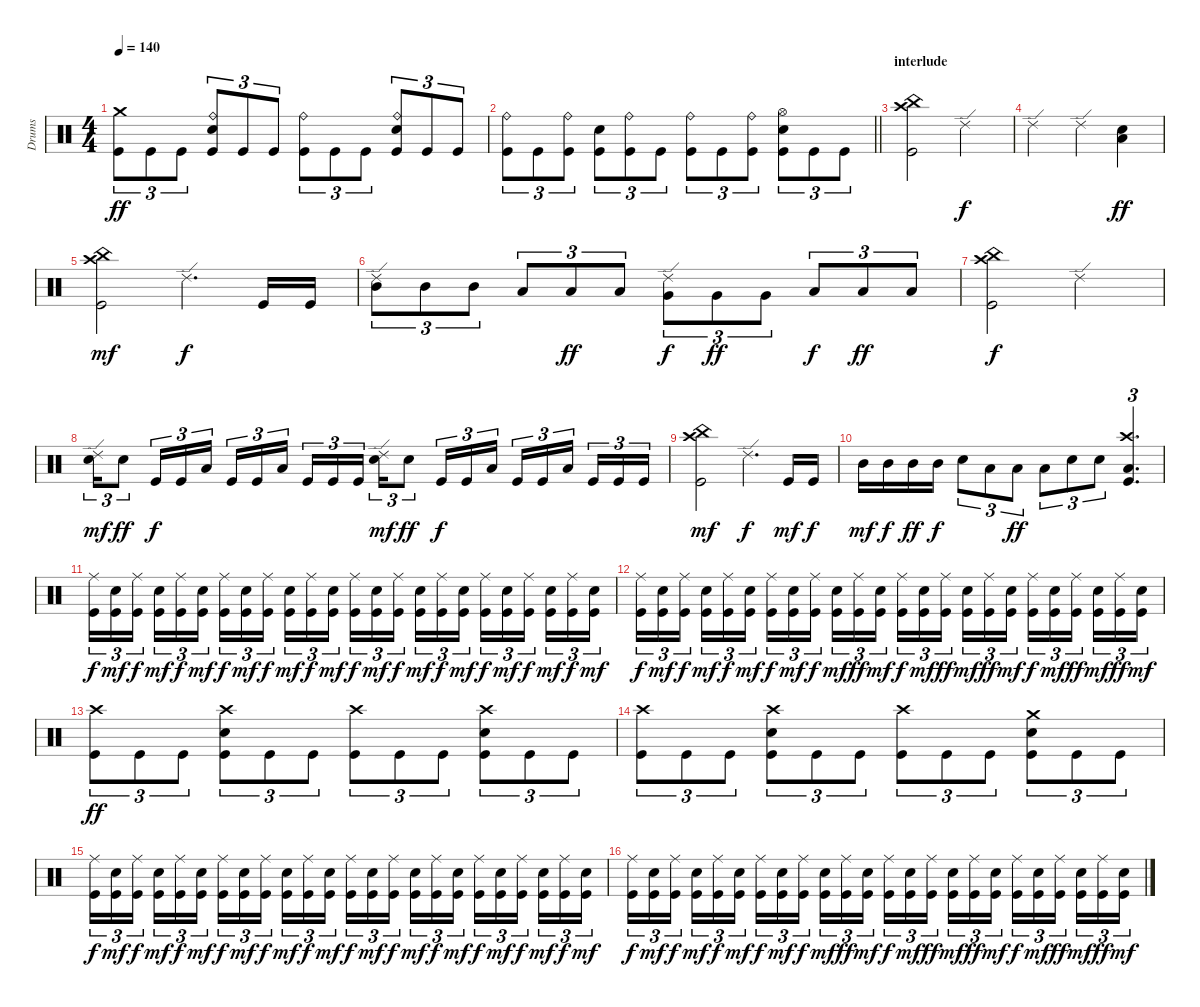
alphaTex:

\track ("Drums" "Drums") {instrument percussion}
\staff {score}
\articulation defaults
\ts (4 4)
\tempo 140
\clef neutral
\ks c
("Crash medium (hit)" "Kick (hit)").8{tu (3 2) dy ff} "Kick (hit)".8{tu (3 2)} "Kick (hit)".8{tu (3 2)} ("Ride (bell)" "Electric Snare (hit)" "Kick (hit)").8{tu (3 2)} "Kick (hit)".8{tu (3 2)} "Kick (hit)".8{tu (3 2)} ("Ride (bell)" "Kick (hit)").8{tu (3 2)} "Kick (hit)".8{tu (3 2)} "Kick (hit)".8{tu (3 2)} ("Ride (bell)" "Electric Snare (hit)" "Kick (hit)").8{tu (3 2)} "Kick (hit)".8{tu (3 2)} "Kick (hit)".8{tu (3 2)} |
\barLineRight lightlight
("Ride (bell)" "Kick (hit)").8{tu (3 2)} "Kick (hit)".8{tu (3 2)} ("Ride (bell)" "Kick (hit)").8{tu (3 2)} ("Electric Snare (hit)" "Kick (hit)").8{tu (3 2)} ("Ride (bell)" "Kick (hit)").8{tu (3 2)} "Kick (hit)".8{tu (3 2)} ("Ride (bell)" "Kick (hit)").8{tu (3 2)} "Kick (hit)".8{tu (3 2)} ("Ride (bell)" "Kick (hit)").8{tu (3 2)} ("Hi-Hat (open)" "Electric Snare (hit)" "Kick (hit)").8{tu (3 2)} "Kick (hit)".8{tu (3 2)} "Kick (hit)".8{tu (3 2)} |
\section ("" "interlude")
("Crash high (hit)" "China (hit)" "Kick (hit)").2 "Ride (edge) 2".2{dy f} |
"Ride (edge) 2".2 "Ride (edge) 2".4 ("Electric Snare (hit)" "Low Floor Tom (hit)").4{dy ff} |
("Crash high (hit)" "China (hit)" "Kick (hit)").2{dy mf} "Ride (edge) 2".4{d dy f} "Kick (hit)".16 "Kick (hit)".16 |
("Ride (edge) 2" "Mid Tom (hit)").8{tu (3 2)} "Mid Tom (hit)".8{tu (3 2)} "Mid Tom (hit)".8{tu (3 2)} "Low Tom (hit)".8{tu (3 2)} "Low Tom (hit)".8{tu (3 2) dy ff} "Low Tom (hit)".8{tu (3 2)} ("Ride (edge) 2" "Very Low Tom (hit)").8{tu (3 2) dy f} "Very Low Tom (hit)".8{tu (3 2) dy ff} "Very Low Tom (hit)".8{tu (3 2)} "Low Floor Tom (hit)".8{tu (3 2) dy f} "Low Floor Tom (hit)".8{tu (3 2) dy ff} "Low Floor Tom (hit)".8{tu (3 2)} |
("Crash high (hit)" "China (hit)" "Kick (hit)").2{dy f} "Ride (edge) 2".2 |
("Ride (edge) 2" "Electric Snare (hit)").16{tu (3 2) dy mf} "Electric Snare (hit)".8{tu (3 2) dy ff} "Kick (hit)".16{tu (3 2) dy f} "Kick (hit)".16{tu (3 2)} "Low Floor Tom (hit)".16{tu (3 2)} "Kick (hit)".16{tu (3 2)} "Kick (hit)".16{tu (3 2)} "Low Floor Tom (hit)".16{tu (3 2) beam splitsecondary} "Kick (hit)".16{tu (3 2)} "Kick (hit)".16{tu (3 2)} "Kick (hit)".16{tu (3 2)} ("Ride (edge) 2" "Electric Snare (hit)").16{tu (3 2) dy mf} "Electric Snare (hit)".8{tu (3 2) dy ff} "Kick (hit)".16{tu (3 2) dy f} "Kick (hit)".16{tu (3 2)} "Low Floor Tom (hit)".16{tu (3 2)} "Kick (hit)".16{tu (3 2)} "Kick (hit)".16{tu (3 2)} "Low Floor Tom (hit)".16{tu (3 2) beam splitsecondary} "Kick (hit)".16{tu (3 2)} "Kick (hit)".16{tu (3 2)} "Kick (hit)".16{tu (3 2)} |
("Crash high (hit)" "China (hit)" "Kick (hit)").2{dy mf} "Ride (edge) 2".4{d dy f} "Kick (hit)".16{dy mf} "Kick (hit)".16{dy f} |
"Mid Tom (hit)".16{dy mf} "Mid Tom (hit)".16{dy f} "Mid Tom (hit)".16{dy ff} "Mid Tom (hit)".16{dy f} "Electric Snare (hit)".8{tu (3 2)} "Low Tom (hit)".8{tu (3 2)} "Low Tom (hit)".8{tu (3 2) dy ff} "Low Tom (hit)".8{tu (3 2)} "Electric Snare (hit)".8{tu (3 2)} "Electric Snare (hit)".8{tu (3 2)} ("Crash high (hit)" "Low Floor Tom (hit)" "Kick (hit)").4{d tu (3 2)} |
("Ride (middle)" "Kick (hit)").16{tu (3 2) dy f} ("Electric Snare (hit)" "Kick (hit)").16{tu (3 2) dy mf} ("Ride (middle)" "Kick (hit)").16{tu (3 2) dy f beam splitsecondary} ("Electric Snare (hit)" "Kick (hit)").16{tu (3 2) dy mf} ("Ride (middle)" "Kick (hit)").16{tu (3 2) dy f} ("Electric Snare (hit)" "Kick (hit)").16{tu (3 2) dy mf} ("Ride (middle)" "Kick (hit)").16{tu (3 2) dy f} ("Electric Snare (hit)" "Kick (hit)").16{tu (3 2) dy mf} ("Ride (middle)" "Kick (hit)").16{tu (3 2) dy f beam splitsecondary} ("Electric Snare (hit)" "Kick (hit)").16{tu (3 2) dy mf} ("Ride (middle)" "Kick (hit)").16{tu (3 2) dy f} ("Electric Snare (hit)" "Kick (hit)").16{tu (3 2) dy mf} ("Ride (middle)" "Kick (hit)").16{tu (3 2) dy f} ("Electric Snare (hit)" "Kick (hit)").16{tu (3 2) dy mf} ("Ride (middle)" "Kick (hit)").16{tu (3 2) dy f beam splitsecondary} ("Electric Snare (hit)" "Kick (hit)").16{tu (3 2) dy mf} ("Ride (middle)" "Kick (hit)").16{tu (3 2) dy f} ("Electric Snare (hit)" "Kick (hit)").16{tu (3 2) dy mf} ("Ride (middle)" "Kick (hit)").16{tu (3 2) dy f} ("Electric Snare (hit)" "Kick (hit)").16{tu (3 2) dy mf} ("Ride (middle)" "Kick (hit)").16{tu (3 2) dy f beam splitsecondary} ("Electric Snare (hit)" "Kick (hit)").16{tu (3 2) dy mf} ("Ride (middle)" "Kick (hit)").16{tu (3 2) dy f} ("Electric Snare (hit)" "Kick (hit)").16{tu (3 2) dy mf} |
("Ride (middle)" "Kick (hit)").16{tu (3 2) dy f} ("Electric Snare (hit)" "Kick (hit)").16{tu (3 2) dy mf} ("Ride (middle)" "Kick (hit)").16{tu (3 2) dy f beam splitsecondary} ("Electric Snare (hit)" "Kick (hit)").16{tu (3 2) dy mf} ("Ride (middle)" "Kick (hit)").16{tu (3 2) dy f} ("Electric Snare (hit)" "Kick (hit)").16{tu (3 2) dy mf} ("Ride (middle)" "Kick (hit)").16{tu (3 2) dy f} ("Electric Snare (hit)" "Kick (hit)").16{tu (3 2) dy mf} ("Ride (middle)" "Kick (hit)").16{tu (3 2) dy f beam splitsecondary} ("Electric Snare (hit)" "Kick (hit)").16{tu (3 2) dy mf} ("Ride (middle)" "Kick (hit)").16{tu (3 2) dy ff} ("Electric Snare (hit)" "Kick (hit)").16{tu (3 2) dy mf} ("Ride (middle)" "Kick (hit)").16{tu (3 2) dy f} ("Electric Snare (hit)" "Kick (hit)").16{tu (3 2) dy mf} ("Ride (middle)" "Kick (hit)").16{tu (3 2) dy ff beam splitsecondary} ("Electric Snare (hit)" "Kick (hit)").16{tu (3 2) dy mf} ("Ride (middle)" "Kick (hit)").16{tu (3 2) dy ff} ("Electric Snare (hit)" "Kick (hit)").16{tu (3 2) dy mf} ("Ride (middle)" "Kick (hit)").16{tu (3 2) dy f} ("Electric Snare (hit)" "Kick (hit)").16{tu (3 2) dy mf} ("Ride (middle)" "Kick (hit)").16{tu (3 2) dy ff beam splitsecondary} ("Electric Snare (hit)" "Kick (hit)").16{tu (3 2) dy mf} ("Ride (middle)" "Kick (hit)").16{tu (3 2) dy ff} ("Electric Snare (hit)" "Kick (hit)").16{tu (3 2) dy mf} |
("Crash high (hit)" "Kick (hit)").8{tu (3 2) dy ff} "Kick (hit)".8{tu (3 2)} "Kick (hit)".8{tu (3 2)} ("Crash high (hit)" "Electric Snare (hit)" "Kick (hit)").8{tu (3 2)} "Kick (hit)".8{tu (3 2)} "Kick (hit)".8{tu (3 2)} ("Crash high (hit)" "Kick (hit)").8{tu (3 2)} "Kick (hit)".8{tu (3 2)} "Kick (hit)".8{tu (3 2)} ("Crash high (hit)" "Electric Snare (hit)" "Kick (hit)").8{tu (3 2)} "Kick (hit)".8{tu (3 2)} "Kick (hit)".8{tu (3 2)} |
("Crash high (hit)" "Kick (hit)").8{tu (3 2)} "Kick (hit)".8{tu (3 2)} "Kick (hit)".8{tu (3 2)} ("Crash high (hit)" "Electric Snare (hit)" "Kick (hit)").8{tu (3 2)} "Kick (hit)".8{tu (3 2)} "Kick (hit)".8{tu (3 2)} ("Crash high (hit)" "Kick (hit)").8{tu (3 2)} "Kick (hit)".8{tu (3 2)} "Kick (hit)".8{tu (3 2)} ("Crash medium (hit)" "Electric Snare (hit)" "Kick (hit)").8{tu (3 2)} "Kick (hit)".8{tu (3 2)} "Kick (hit)".8{tu (3 2)} |
("Ride (middle)" "Kick (hit)").16{tu (3 2) dy f} ("Electric Snare (hit)" "Kick (hit)").16{tu (3 2) dy mf} ("Ride (middle)" "Kick (hit)").16{tu (3 2) dy f beam splitsecondary} ("Electric Snare (hit)" "Kick (hit)").16{tu (3 2) dy mf} ("Ride (middle)" "Kick (hit)").16{tu (3 2) dy f} ("Electric Snare (hit)" "Kick (hit)").16{tu (3 2) dy mf} ("Ride (middle)" "Kick (hit)").16{tu (3 2) dy f} ("Electric Snare (hit)" "Kick (hit)").16{tu (3 2) dy mf} ("Ride (middle)" "Kick (hit)").16{tu (3 2) dy f beam splitsecondary} ("Electric Snare (hit)" "Kick (hit)").16{tu (3 2) dy mf} ("Ride (middle)" "Kick (hit)").16{tu (3 2) dy f} ("Electric Snare (hit)" "Kick (hit)").16{tu (3 2) dy mf} ("Ride (middle)" "Kick (hit)").16{tu (3 2) dy f} ("Electric Snare (hit)" "Kick (hit)").16{tu (3 2) dy mf} ("Ride (middle)" "Kick (hit)").16{tu (3 2) dy f beam splitsecondary} ("Electric Snare (hit)" "Kick (hit)").16{tu (3 2) dy mf} ("Ride (middle)" "Kick (hit)").16{tu (3 2) dy f} ("Electric Snare (hit)" "Kick (hit)").16{tu (3 2) dy mf} ("Ride (middle)" "Kick (hit)").16{tu (3 2) dy f} ("Electric Snare (hit)" "Kick (hit)").16{tu (3 2) dy mf} ("Ride (middle)" "Kick (hit)").16{tu (3 2) dy f beam splitsecondary} ("Electric Snare (hit)" "Kick (hit)").16{tu (3 2) dy mf} ("Ride (middle)" "Kick (hit)").16{tu (3 2) dy f} ("Electric Snare (hit)" "Kick (hit)").16{tu (3 2) dy mf} |
("Ride (middle)" "Kick (hit)").16{tu (3 2) dy f} ("Electric Snare (hit)" "Kick (hit)").16{tu (3 2) dy mf} ("Ride (middle)" "Kick (hit)").16{tu (3 2) dy f beam splitsecondary} ("Electric Snare (hit)" "Kick (hit)").16{tu (3 2) dy mf} ("Ride (middle)" "Kick (hit)").16{tu (3 2) dy f} ("Electric Snare (hit)" "Kick (hit)").16{tu (3 2) dy mf} ("Ride (middle)" "Kick (hit)").16{tu (3 2) dy f} ("Electric Snare (hit)" "Kick (hit)").16{tu (3 2) dy mf} ("Ride (middle)" "Kick (hit)").16{tu (3 2) dy f beam splitsecondary} ("Electric Snare (hit)" "Kick (hit)").16{tu (3 2) dy mf} ("Ride (middle)" "Kick (hit)").16{tu (3 2) dy ff} ("Electric Snare (hit)" "Kick (hit)").16{tu (3 2) dy mf} ("Ride (middle)" "Kick (hit)").16{tu (3 2) dy f} ("Electric Snare (hit)" "Kick (hit)").16{tu (3 2) dy mf} ("Ride (middle)" "Kick (hit)").16{tu (3 2) dy ff beam splitsecondary} ("Electric Snare (hit)" "Kick (hit)").16{tu (3 2) dy mf} ("Ride (middle)" "Kick (hit)").16{tu (3 2) dy ff} ("Electric Snare (hit)" "Kick (hit)").16{tu (3 2) dy mf} ("Ride (middle)" "Kick (hit)").16{tu (3 2) dy f} ("Electric Snare (hit)" "Kick (hit)").16{tu (3 2) dy mf} ("Ride (middle)" "Kick (hit)").16{tu (3 2) dy ff beam splitsecondary} ("Electric Snare (hit)" "Kick (hit)").16{tu (3 2) dy mf} ("Ride (middle)" "Kick (hit)").16{tu (3 2) dy ff} ("Electric Snare (hit)" "Kick (hit)").16{tu (3 2) dy mf}
